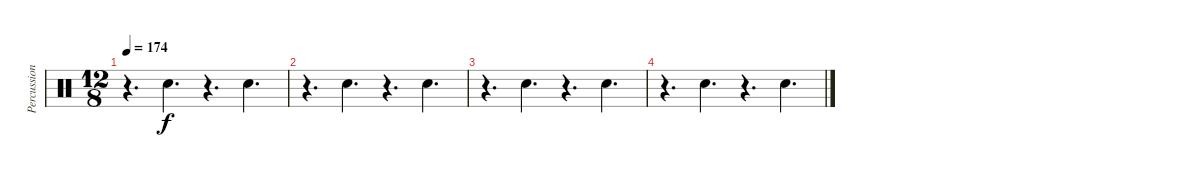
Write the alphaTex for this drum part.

\track ("Percussion" "Percussion") {instrument percussion}
\staff {score}
\articulation defaults
\ts (12 8)
\tempo 174
\clef neutral
\ks c
r.4{d dy f} "Hand Clap (hit)".4{d} r.4{d} "Hand Clap (hit)".4{d} |
r.4{d} "Hand Clap (hit)".4{d} r.4{d} "Hand Clap (hit)".4{d} |
r.4{d} "Hand Clap (hit)".4{d} r.4{d} "Hand Clap (hit)".4{d} |
r.4{d} "Hand Clap (hit)".4{d} r.4{d} "Hand Clap (hit)".4{d}
